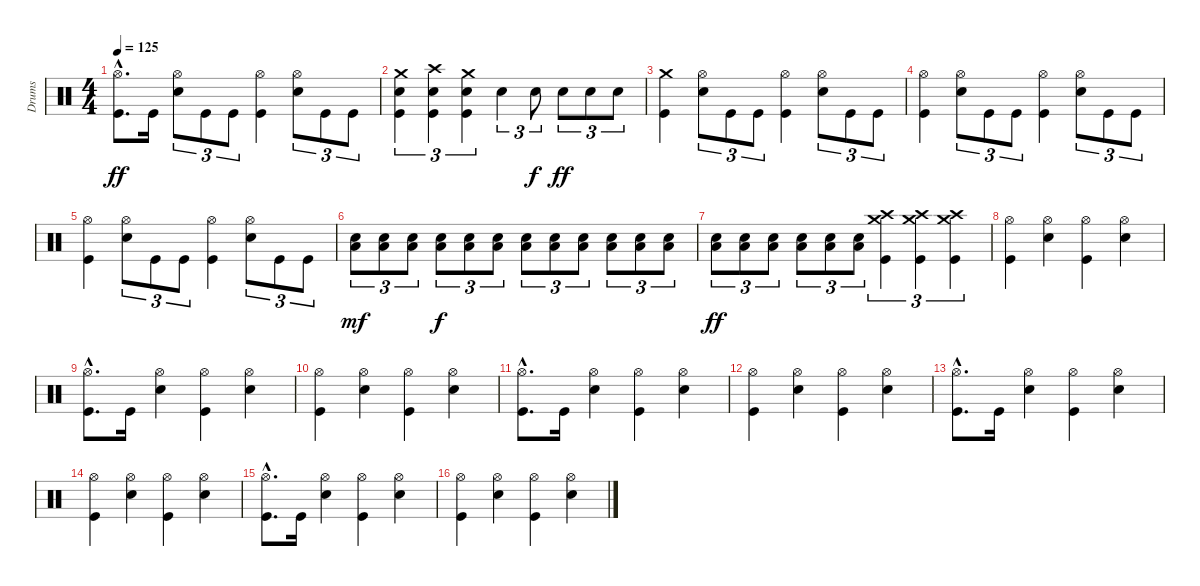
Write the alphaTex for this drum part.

\track ("Drums" "Drums") {instrument percussion}
\staff {score}
\articulation defaults
\ts (4 4)
\tempo 125
\clef neutral
\ks c
("Hi-Hat (open)"{hac} "Kick (hit)"{hac}).8{d dy ff} "Kick (hit)".16 ("Hi-Hat (open)" "Electric Snare (hit)").8{tu (3 2)} "Kick (hit)".8{tu (3 2)} "Kick (hit)".8{tu (3 2)} ("Hi-Hat (open)" "Kick (hit)").4 ("Hi-Hat (open)" "Electric Snare (hit)").8{tu (3 2)} "Kick (hit)".8{tu (3 2)} "Kick (hit)".8{tu (3 2)} |
("Crash medium (hit)" "Electric Snare (hit)" "Kick (hit)").4{tu (3 2)} ("Crash high (hit)" "Electric Snare (hit)" "Kick (hit)").4{tu (3 2)} ("Crash medium (hit)" "Electric Snare (hit)" "Kick (hit)").4{tu (3 2)} "Electric Snare (hit)".4{tu (3 2)} "Electric Snare (hit)".8{tu (3 2) dy f} "Electric Snare (hit)".8{tu (3 2) dy ff} "Electric Snare (hit)".8{tu (3 2)} "Electric Snare (hit)".8{tu (3 2)} |
("Crash medium (hit)" "Kick (hit)").4 ("Hi-Hat (open)" "Electric Snare (hit)").8{tu (3 2)} "Kick (hit)".8{tu (3 2)} "Kick (hit)".8{tu (3 2)} ("Hi-Hat (open)" "Kick (hit)").4 ("Hi-Hat (open)" "Electric Snare (hit)").8{tu (3 2)} "Kick (hit)".8{tu (3 2)} "Kick (hit)".8{tu (3 2)} |
("Hi-Hat (open)" "Kick (hit)").4 ("Hi-Hat (open)" "Electric Snare (hit)").8{tu (3 2)} "Kick (hit)".8{tu (3 2)} "Kick (hit)".8{tu (3 2)} ("Hi-Hat (open)" "Kick (hit)").4 ("Hi-Hat (open)" "Electric Snare (hit)").8{tu (3 2)} "Kick (hit)".8{tu (3 2)} "Kick (hit)".8{tu (3 2)} |
("Hi-Hat (open)" "Kick (hit)").4 ("Hi-Hat (open)" "Electric Snare (hit)").8{tu (3 2)} "Kick (hit)".8{tu (3 2)} "Kick (hit)".8{tu (3 2)} ("Hi-Hat (open)" "Kick (hit)").4 ("Hi-Hat (open)" "Electric Snare (hit)").8{tu (3 2)} "Kick (hit)".8{tu (3 2)} "Kick (hit)".8{tu (3 2)} |
("Low Floor Tom (hit)" "Electric Snare (hit)").8{tu (3 2) dy mf} ("Low Floor Tom (hit)" "Electric Snare (hit)").8{tu (3 2)} ("Low Floor Tom (hit)" "Electric Snare (hit)").8{tu (3 2)} ("Low Floor Tom (hit)" "Electric Snare (hit)").8{tu (3 2) dy f} ("Low Floor Tom (hit)" "Electric Snare (hit)").8{tu (3 2)} ("Low Floor Tom (hit)" "Electric Snare (hit)").8{tu (3 2)} ("Low Floor Tom (hit)" "Electric Snare (hit)").8{tu (3 2)} ("Low Floor Tom (hit)" "Electric Snare (hit)").8{tu (3 2)} ("Low Floor Tom (hit)" "Electric Snare (hit)").8{tu (3 2)} ("Low Floor Tom (hit)" "Electric Snare (hit)").8{tu (3 2)} ("Low Floor Tom (hit)" "Electric Snare (hit)").8{tu (3 2)} ("Low Floor Tom (hit)" "Electric Snare (hit)").8{tu (3 2)} |
("Low Floor Tom (hit)" "Electric Snare (hit)").8{tu (3 2) dy ff} ("Low Floor Tom (hit)" "Electric Snare (hit)").8{tu (3 2)} ("Low Floor Tom (hit)" "Electric Snare (hit)").8{tu (3 2)} ("Low Floor Tom (hit)" "Electric Snare (hit)").8{tu (3 2)} ("Low Floor Tom (hit)" "Electric Snare (hit)").8{tu (3 2)} ("Low Floor Tom (hit)" "Electric Snare (hit)").8{tu (3 2)} ("Crash medium (hit)" "Crash high (hit)" "Kick (hit)").4{tu (3 2)} ("Crash medium (hit)" "Crash high (hit)" "Kick (hit)").4{tu (3 2)} ("Crash medium (hit)" "Crash high (hit)" "Kick (hit)").4{tu (3 2)} |
("Hi-Hat (open)" "Kick (hit)").4 ("Hi-Hat (open)" "Electric Snare (hit)").4 ("Hi-Hat (open)" "Kick (hit)").4 ("Hi-Hat (open)" "Electric Snare (hit)").4 |
("Hi-Hat (open)"{hac} "Kick (hit)"{hac}).8{d} "Kick (hit)".16 ("Hi-Hat (open)" "Electric Snare (hit)").4 ("Hi-Hat (open)" "Kick (hit)").4 ("Hi-Hat (open)" "Electric Snare (hit)").4 |
("Hi-Hat (open)" "Kick (hit)").4 ("Hi-Hat (open)" "Electric Snare (hit)").4 ("Hi-Hat (open)" "Kick (hit)").4 ("Hi-Hat (open)" "Electric Snare (hit)").4 |
("Hi-Hat (open)"{hac} "Kick (hit)"{hac}).8{d} "Kick (hit)".16 ("Hi-Hat (open)" "Electric Snare (hit)").4 ("Hi-Hat (open)" "Kick (hit)").4 ("Hi-Hat (open)" "Electric Snare (hit)").4 |
("Hi-Hat (open)" "Kick (hit)").4 ("Hi-Hat (open)" "Electric Snare (hit)").4 ("Hi-Hat (open)" "Kick (hit)").4 ("Hi-Hat (open)" "Electric Snare (hit)").4 |
("Hi-Hat (open)"{hac} "Kick (hit)"{hac}).8{d} "Kick (hit)".16 ("Hi-Hat (open)" "Electric Snare (hit)").4 ("Hi-Hat (open)" "Kick (hit)").4 ("Hi-Hat (open)" "Electric Snare (hit)").4 |
("Hi-Hat (open)" "Kick (hit)").4 ("Hi-Hat (open)" "Electric Snare (hit)").4 ("Hi-Hat (open)" "Kick (hit)").4 ("Hi-Hat (open)" "Electric Snare (hit)").4 |
("Hi-Hat (open)"{hac} "Kick (hit)"{hac}).8{d} "Kick (hit)".16 ("Hi-Hat (open)" "Electric Snare (hit)").4 ("Hi-Hat (open)" "Kick (hit)").4 ("Hi-Hat (open)" "Electric Snare (hit)").4 |
("Hi-Hat (open)" "Kick (hit)").4 ("Hi-Hat (open)" "Electric Snare (hit)").4 ("Hi-Hat (open)" "Kick (hit)").4 ("Hi-Hat (open)" "Electric Snare (hit)").4
